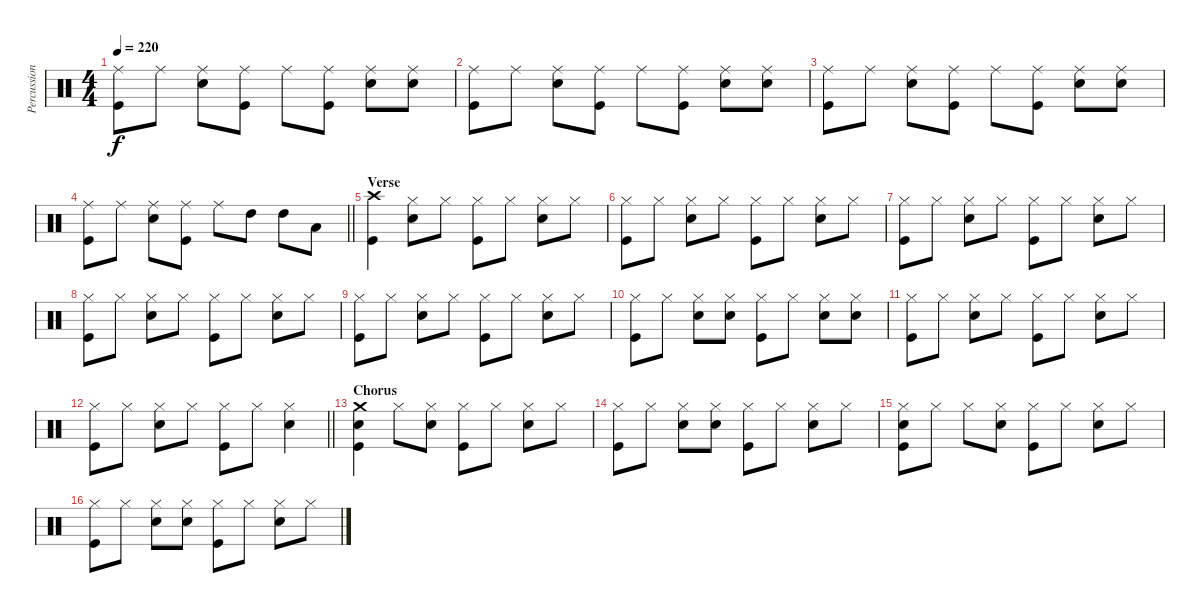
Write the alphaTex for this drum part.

\track ("Percussion" "Percussion") {instrument percussion}
\staff {score}
\articulation defaults
\ts (4 4)
\tempo 220
\clef neutral
\ks c
("Kick (hit)" "Ride (middle)").8{dy f} "Ride (middle)".8 ("Ride (middle)" "Snare (hit) 2").8 ("Kick (hit)" "Ride (middle)").8 "Ride (middle)".8 ("Kick (hit)" "Ride (middle)").8 ("Ride (middle)" "Snare (hit) 2").8 ("Ride (middle)" "Snare (hit) 2").8 |
("Kick (hit)" "Ride (middle)").8 "Ride (middle)".8 ("Ride (middle)" "Snare (hit) 2").8 ("Kick (hit)" "Ride (middle)").8 "Ride (middle)".8 ("Kick (hit)" "Ride (middle)").8 ("Ride (middle)" "Snare (hit) 2").8 ("Ride (middle)" "Snare (hit) 2").8 |
("Kick (hit)" "Ride (middle)").8 "Ride (middle)".8 ("Ride (middle)" "Snare (hit) 2").8 ("Kick (hit)" "Ride (middle)").8 "Ride (middle)".8 ("Kick (hit)" "Ride (middle)").8 ("Ride (middle)" "Snare (hit) 2").8 ("Ride (middle)" "Snare (hit) 2").8 |
\barLineRight lightlight
("Kick (hit)" "Ride (middle)").8 "Ride (middle)".8 ("Ride (middle)" "Snare (hit) 2").8 ("Kick (hit)" "Ride (middle)").8 "Ride (middle)".8 "High Tom (hit)".8 "High Tom (hit)".8 "Low Tom (hit)".8 |
\section ("" "Verse")
("Kick (hit)" "Crash high (hit)").4 ("Hi-Hat (closed)" "Snare (hit) 2").8 "Hi-Hat (closed)".8 ("Kick (hit)" "Hi-Hat (closed)").8 "Hi-Hat (closed)".8 ("Hi-Hat (closed)" "Snare (hit) 2").8 "Hi-Hat (closed)".8 |
("Kick (hit)" "Hi-Hat (closed)").8 "Hi-Hat (closed)".8 ("Hi-Hat (closed)" "Snare (hit) 2").8 "Hi-Hat (closed)".8 ("Kick (hit)" "Hi-Hat (closed)").8 "Hi-Hat (closed)".8 ("Hi-Hat (closed)" "Snare (hit) 2").8 "Hi-Hat (closed)".8 |
("Kick (hit)" "Hi-Hat (closed)").8 "Hi-Hat (closed)".8 ("Hi-Hat (closed)" "Snare (hit) 2").8 "Hi-Hat (closed)".8 ("Kick (hit)" "Hi-Hat (closed)").8 "Hi-Hat (closed)".8 ("Hi-Hat (closed)" "Snare (hit) 2").8 "Hi-Hat (closed)".8 |
("Kick (hit)" "Hi-Hat (closed)").8 "Hi-Hat (closed)".8 ("Hi-Hat (closed)" "Snare (hit) 2").8 "Hi-Hat (closed)".8 ("Kick (hit)" "Hi-Hat (closed)").8 "Hi-Hat (closed)".8 ("Hi-Hat (closed)" "Snare (hit) 2").8 "Hi-Hat (closed)".8 |
("Kick (hit)" "Hi-Hat (closed)").8 "Hi-Hat (closed)".8 ("Hi-Hat (closed)" "Snare (hit) 2").8 "Hi-Hat (closed)".8 ("Kick (hit)" "Hi-Hat (closed)").8 "Hi-Hat (closed)".8 ("Hi-Hat (closed)" "Snare (hit) 2").8 "Hi-Hat (closed)".8 |
("Kick (hit)" "Hi-Hat (closed)").8 "Hi-Hat (closed)".8 ("Hi-Hat (closed)" "Snare (hit) 2").8 ("Hi-Hat (closed)" "Snare (hit) 2").8 ("Kick (hit)" "Hi-Hat (closed)").8 "Hi-Hat (closed)".8 ("Hi-Hat (closed)" "Snare (hit) 2").8 ("Hi-Hat (closed)" "Snare (hit) 2").8 |
("Kick (hit)" "Hi-Hat (closed)").8 "Hi-Hat (closed)".8 ("Hi-Hat (closed)" "Snare (hit) 2").8 "Hi-Hat (closed)".8 ("Kick (hit)" "Hi-Hat (closed)").8 "Hi-Hat (closed)".8 ("Hi-Hat (closed)" "Snare (hit) 2").8 "Hi-Hat (closed)".8 |
\barLineRight lightlight
("Kick (hit)" "Hi-Hat (closed)").8 "Hi-Hat (closed)".8 ("Hi-Hat (closed)" "Snare (hit) 2").8 "Hi-Hat (closed)".8 ("Kick (hit)" "Hi-Hat (closed)").8 "Hi-Hat (closed)".8 ("Hi-Hat (closed)" "Snare (hit) 2").4 |
\section ("" "Chorus")
("Kick (hit)" "Crash medium (hit)" "Snare (hit) 2").4 "Hi-Hat (closed)".8 ("Hi-Hat (closed)" "Snare (hit) 2").8 ("Kick (hit)" "Hi-Hat (closed)").8 "Hi-Hat (closed)".8 ("Hi-Hat (closed)" "Snare (hit) 2").8 "Hi-Hat (closed)".8 |
("Kick (hit)" "Hi-Hat (closed)").8 "Hi-Hat (closed)".8 ("Hi-Hat (closed)" "Snare (hit) 2").8 ("Hi-Hat (closed)" "Snare (hit) 2").8 ("Kick (hit)" "Hi-Hat (closed)").8 "Hi-Hat (closed)".8 ("Hi-Hat (closed)" "Snare (hit) 2").8 "Hi-Hat (closed)".8 |
("Kick (hit)" "Hi-Hat (closed)" "Snare (hit) 2").8 "Hi-Hat (closed)".8 "Hi-Hat (closed)".8 ("Hi-Hat (closed)" "Snare (hit) 2").8 ("Kick (hit)" "Hi-Hat (closed)").8 "Hi-Hat (closed)".8 ("Hi-Hat (closed)" "Snare (hit) 2").8 "Hi-Hat (closed)".8 |
("Kick (hit)" "Hi-Hat (closed)").8 "Hi-Hat (closed)".8 ("Hi-Hat (closed)" "Snare (hit) 2").8 ("Hi-Hat (closed)" "Snare (hit) 2").8 ("Kick (hit)" "Hi-Hat (closed)").8 "Hi-Hat (closed)".8 ("Hi-Hat (closed)" "Snare (hit) 2").8 "Hi-Hat (closed)".8
